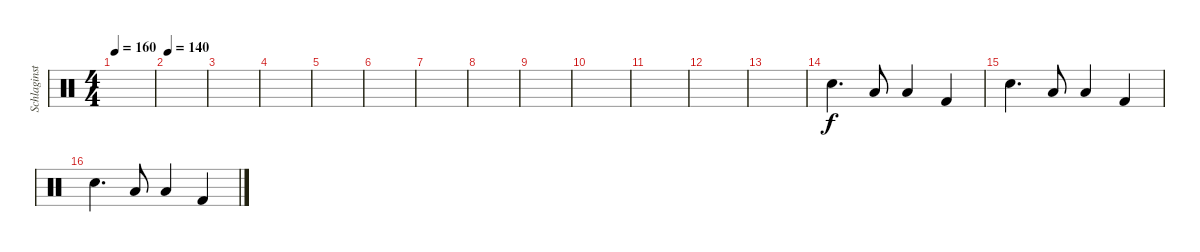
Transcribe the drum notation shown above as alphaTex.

\track ("Schlaginstrumente - Auswahl" "Schlaginst") {instrument percussion}
\staff {score}
\articulation defaults
\ts (4 4)
\tempo 160
\clef neutral
\ks c
|
\tempo 140
|
|
|
|
|
|
|
|
|
|
|
|
"Electric Snare (hit)".4{d} "Low Tom (hit)".8 "Low Floor Tom (hit)".4 "Kick (hit) 2".4 |
"Electric Snare (hit)".4{d} "Low Tom (hit)".8 "Low Floor Tom (hit)".4 "Kick (hit) 2".4 |
"Electric Snare (hit)".4{d} "Low Tom (hit)".8 "Low Floor Tom (hit)".4 "Kick (hit) 2".4
